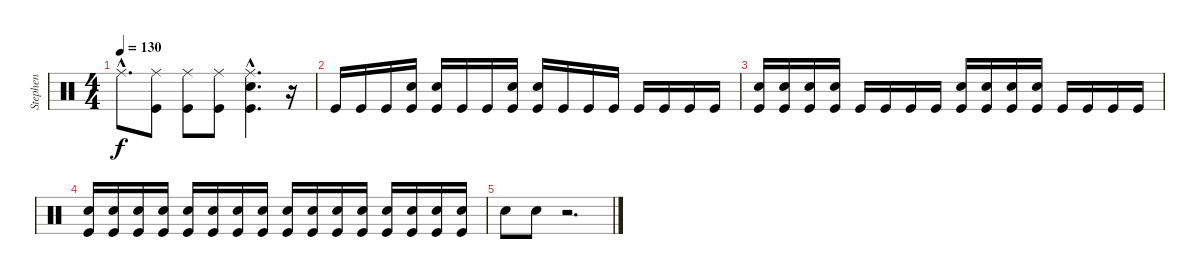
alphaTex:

\track ("Stephen" "Stephen") {instrument percussion}
\staff {score}
\articulation defaults
\ts (4 4)
\tempo 130
\clef neutral
\ks c "Ride (middle)"{hac}.8{d dy f}
("Ride (middle)" "Kick (hit)").8 ("Ride (middle)" "Kick (hit)").8 ("Ride (middle)" "Kick (hit)").8 ("Ride (middle)"{hac} "Electric Snare (hit)"{hac} "Kick (hit)"{hac}).4{d} r.16 |
"Kick (hit)".16 "Kick (hit)".16 "Kick (hit)".16 ("Electric Snare (hit)" "Kick (hit)").16 ("Electric Snare (hit)" "Kick (hit)").16 "Kick (hit)".16 "Kick (hit)".16 ("Electric Snare (hit)" "Kick (hit)").16 ("Electric Snare (hit)" "Kick (hit)").16 "Kick (hit)".16 "Kick (hit)".16 "Kick (hit)".16 "Kick (hit)".16 "Kick (hit)".16 "Kick (hit)".16 "Kick (hit)".16 |
("Electric Snare (hit)" "Kick (hit)").16 ("Electric Snare (hit)" "Kick (hit)").16 ("Electric Snare (hit)" "Kick (hit)").16 ("Electric Snare (hit)" "Kick (hit)").16 "Kick (hit)".16 "Kick (hit)".16 "Kick (hit)".16 "Kick (hit)".16 ("Electric Snare (hit)" "Kick (hit)").16 ("Electric Snare (hit)" "Kick (hit)").16 ("Electric Snare (hit)" "Kick (hit)").16 ("Electric Snare (hit)" "Kick (hit)").16 "Kick (hit)".16 "Kick (hit)".16 "Kick (hit)".16 "Kick (hit)".16 |
("Electric Snare (hit)" "Kick (hit)").16 ("Electric Snare (hit)" "Kick (hit)").16 ("Electric Snare (hit)" "Kick (hit)").16 ("Electric Snare (hit)" "Kick (hit)").16 ("Electric Snare (hit)" "Kick (hit)").16 ("Electric Snare (hit)" "Kick (hit)").16 ("Electric Snare (hit)" "Kick (hit)").16 ("Electric Snare (hit)" "Kick (hit)").16 ("Electric Snare (hit)" "Kick (hit)").16 ("Electric Snare (hit)" "Kick (hit)").16 ("Electric Snare (hit)" "Kick (hit)").16 ("Electric Snare (hit)" "Kick (hit)").16 ("Electric Snare (hit)" "Kick (hit)").16 ("Electric Snare (hit)" "Kick (hit)").16 ("Electric Snare (hit)" "Kick (hit)").16 ("Electric Snare (hit)" "Kick (hit)").16 |
"Electric Snare (hit)".8 "Electric Snare (hit)".8 r.2{d}
